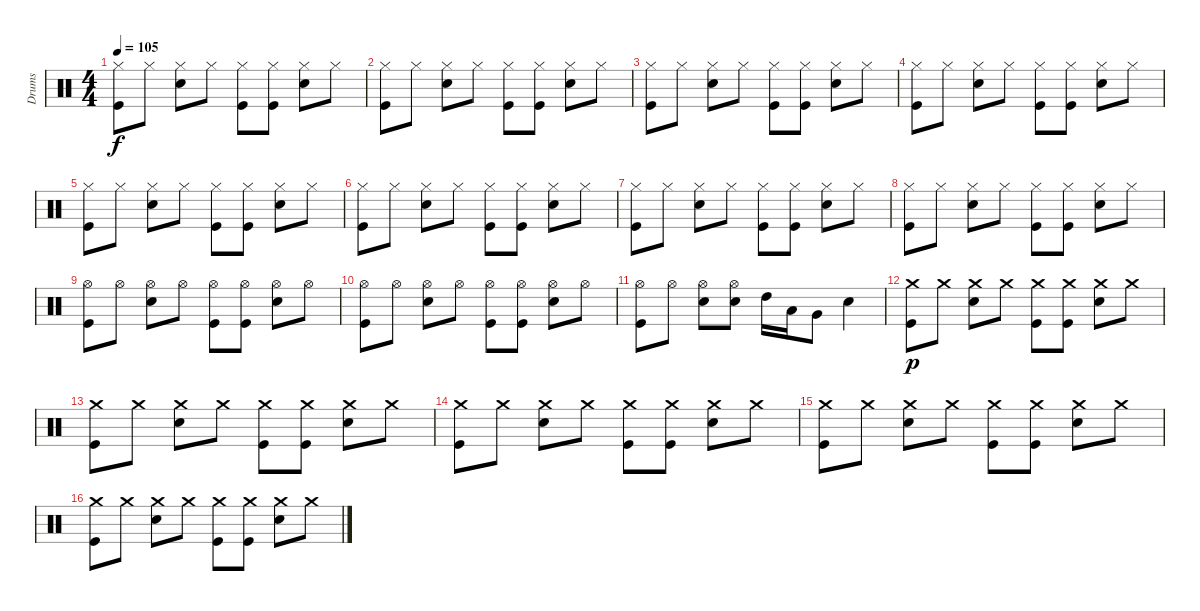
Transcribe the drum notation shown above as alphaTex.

\track ("Drums" "Drums") {instrument percussion}
\staff {score}
\articulation defaults
\ts (4 4)
\tempo 105
\clef neutral
\ks c
("Hi-Hat (closed)" "Kick (hit)").8{dy f} "Hi-Hat (closed)".8 ("Hi-Hat (closed)" "Electric Snare (hit)").8 "Hi-Hat (closed)".8 ("Hi-Hat (closed)" "Kick (hit)").8 ("Hi-Hat (closed)" "Kick (hit)").8 ("Hi-Hat (closed)" "Electric Snare (hit)").8 "Hi-Hat (closed)".8 |
("Hi-Hat (closed)" "Kick (hit)").8 "Hi-Hat (closed)".8 ("Hi-Hat (closed)" "Electric Snare (hit)").8 "Hi-Hat (closed)".8 ("Hi-Hat (closed)" "Kick (hit)").8 ("Hi-Hat (closed)" "Kick (hit)").8 ("Hi-Hat (closed)" "Electric Snare (hit)").8 "Hi-Hat (closed)".8 |
("Hi-Hat (closed)" "Kick (hit)").8 "Hi-Hat (closed)".8 ("Hi-Hat (closed)" "Electric Snare (hit)").8 "Hi-Hat (closed)".8 ("Hi-Hat (closed)" "Kick (hit)").8 ("Hi-Hat (closed)" "Kick (hit)").8 ("Hi-Hat (closed)" "Electric Snare (hit)").8 "Hi-Hat (closed)".8 |
("Hi-Hat (closed)" "Kick (hit)").8 "Hi-Hat (closed)".8 ("Hi-Hat (closed)" "Electric Snare (hit)").8 "Hi-Hat (closed)".8 ("Hi-Hat (closed)" "Kick (hit)").8 ("Hi-Hat (closed)" "Kick (hit)").8 ("Hi-Hat (closed)" "Electric Snare (hit)").8 "Hi-Hat (closed)".8 |
("Hi-Hat (closed)" "Kick (hit)").8 "Hi-Hat (closed)".8 ("Hi-Hat (closed)" "Electric Snare (hit)").8 "Hi-Hat (closed)".8 ("Hi-Hat (closed)" "Kick (hit)").8 ("Hi-Hat (closed)" "Kick (hit)").8 ("Hi-Hat (closed)" "Electric Snare (hit)").8 "Hi-Hat (closed)".8 |
("Hi-Hat (closed)" "Kick (hit)").8 "Hi-Hat (closed)".8 ("Hi-Hat (closed)" "Electric Snare (hit)").8 "Hi-Hat (closed)".8 ("Hi-Hat (closed)" "Kick (hit)").8 ("Hi-Hat (closed)" "Kick (hit)").8 ("Hi-Hat (closed)" "Electric Snare (hit)").8 "Hi-Hat (closed)".8 |
("Hi-Hat (closed)" "Kick (hit)").8 "Hi-Hat (closed)".8 ("Hi-Hat (closed)" "Electric Snare (hit)").8 "Hi-Hat (closed)".8 ("Hi-Hat (closed)" "Kick (hit)").8 ("Hi-Hat (closed)" "Kick (hit)").8 ("Hi-Hat (closed)" "Electric Snare (hit)").8 "Hi-Hat (closed)".8 |
("Hi-Hat (closed)" "Kick (hit)").8 "Hi-Hat (closed)".8 ("Hi-Hat (closed)" "Electric Snare (hit)").8 "Hi-Hat (closed)".8 ("Hi-Hat (closed)" "Kick (hit)").8 ("Hi-Hat (closed)" "Kick (hit)").8 ("Hi-Hat (closed)" "Electric Snare (hit)").8 "Hi-Hat (closed)".8 |
("Hi-Hat (open)" "Kick (hit)").8 "Hi-Hat (open)".8 ("Hi-Hat (open)" "Electric Snare (hit)").8 "Hi-Hat (open)".8 ("Hi-Hat (open)" "Kick (hit)").8 ("Hi-Hat (open)" "Kick (hit)").8 ("Hi-Hat (open)" "Electric Snare (hit)").8 "Hi-Hat (open)".8 |
("Hi-Hat (open)" "Kick (hit)").8 "Hi-Hat (open)".8 ("Hi-Hat (open)" "Electric Snare (hit)").8 "Hi-Hat (open)".8 ("Hi-Hat (open)" "Kick (hit)").8 ("Hi-Hat (open)" "Kick (hit)").8 ("Hi-Hat (open)" "Electric Snare (hit)").8 "Hi-Hat (open)".8 |
("Hi-Hat (open)" "Kick (hit)").8 "Hi-Hat (open)".8 ("Hi-Hat (open)" "Electric Snare (hit)").8 ("Hi-Hat (open)" "Electric Snare (hit)").8 "High Tom (hit)".16 "Low Tom (hit)".16 "Very Low Tom (hit)".8 "Electric Snare (hit)".4 |
("Crash medium (hit)" "Kick (hit)").8{dy p} "Crash medium (hit)".8 ("Crash medium (hit)" "Electric Snare (hit)").8 "Crash medium (hit)".8 ("Crash medium (hit)" "Kick (hit)").8 ("Crash medium (hit)" "Kick (hit)").8 ("Crash medium (hit)" "Electric Snare (hit)").8 "Crash medium (hit)".8 |
("Crash medium (hit)" "Kick (hit)").8 "Crash medium (hit)".8 ("Crash medium (hit)" "Electric Snare (hit)").8 "Crash medium (hit)".8 ("Crash medium (hit)" "Kick (hit)").8 ("Crash medium (hit)" "Kick (hit)").8 ("Crash medium (hit)" "Electric Snare (hit)").8 "Crash medium (hit)".8 |
("Crash medium (hit)" "Kick (hit)").8 "Crash medium (hit)".8 ("Crash medium (hit)" "Electric Snare (hit)").8 "Crash medium (hit)".8 ("Crash medium (hit)" "Kick (hit)").8 ("Crash medium (hit)" "Kick (hit)").8 ("Crash medium (hit)" "Electric Snare (hit)").8 "Crash medium (hit)".8 |
("Crash medium (hit)" "Kick (hit)").8 "Crash medium (hit)".8 ("Crash medium (hit)" "Electric Snare (hit)").8 "Crash medium (hit)".8 ("Crash medium (hit)" "Kick (hit)").8 ("Crash medium (hit)" "Kick (hit)").8 ("Crash medium (hit)" "Electric Snare (hit)").8 "Crash medium (hit)".8 |
("Crash medium (hit)" "Kick (hit)").8 "Crash medium (hit)".8 ("Crash medium (hit)" "Electric Snare (hit)").8 "Crash medium (hit)".8 ("Crash medium (hit)" "Kick (hit)").8 ("Crash medium (hit)" "Kick (hit)").8 ("Crash medium (hit)" "Electric Snare (hit)").8 "Crash medium (hit)".8
